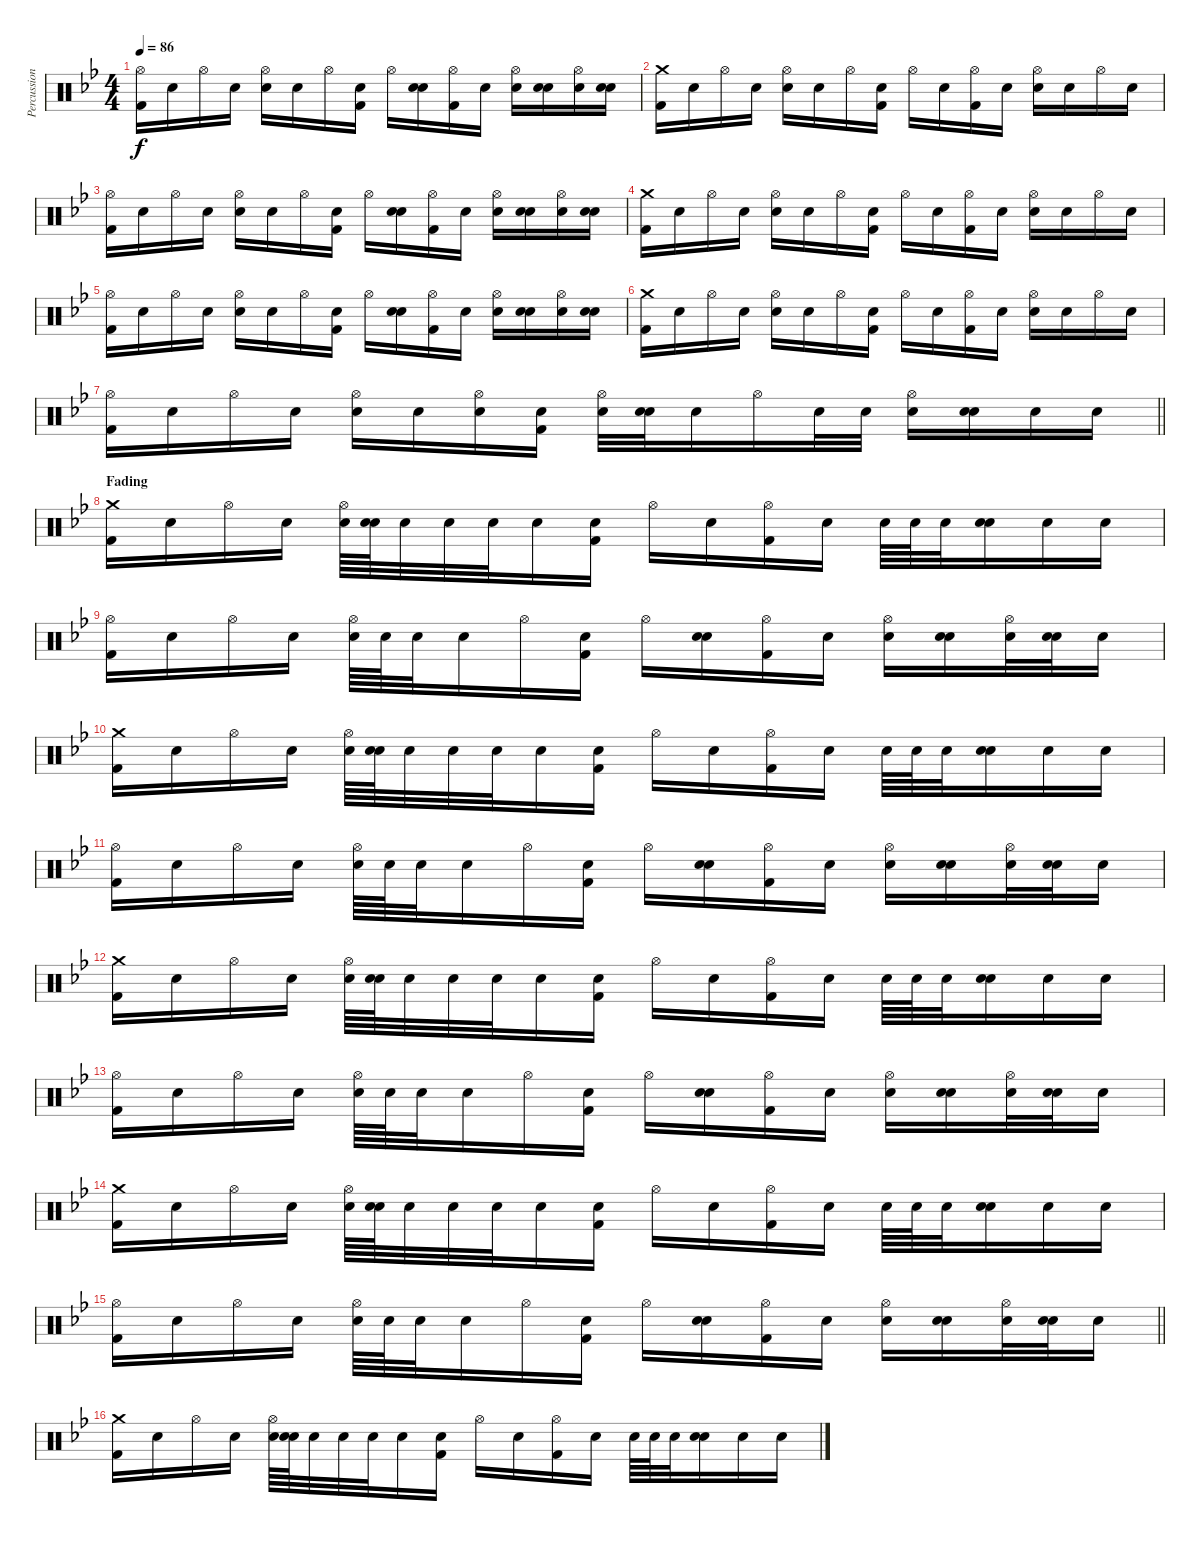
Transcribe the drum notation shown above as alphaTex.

\track ("Percussion" "Percussion") {instrument percussion}
\staff {score}
\articulation defaults
\ts (4 4)
\tempo 86
\clef neutral
\ks gminor
("Hi-Hat (open)" "Kick (hit) 2").16{dy f} "Snare (hit)".16 "Hi-Hat (open)".16 "Snare (hit)".16 ("Hi-Hat (open)" "Electric Snare (hit)").16 "Snare (hit)".16 "Hi-Hat (open)".16 ("Snare (hit)" "Kick (hit) 2").16 "Hi-Hat (open)".16 ("Snare (hit)" "Electric Snare (hit)").16 ("Hi-Hat (open)" "Kick (hit) 2").16 "Snare (hit)".16 ("Hi-Hat (open)" "Electric Snare (hit)").16 ("Snare (hit)" "Electric Snare (hit)").16 ("Hi-Hat (open)" "Electric Snare (hit)").16 ("Snare (hit)" "Electric Snare (hit)").16 |
("Crash medium (hit)" "Kick (hit) 2").16 "Snare (hit)".16 "Hi-Hat (open)".16 "Snare (hit)".16 ("Hi-Hat (open)" "Electric Snare (hit)").16 "Snare (hit)".16 "Hi-Hat (open)".16 ("Snare (hit)" "Kick (hit) 2").16 "Hi-Hat (open)".16 "Snare (hit)".16 ("Hi-Hat (open)" "Kick (hit) 2").16 "Snare (hit)".16 ("Hi-Hat (open)" "Electric Snare (hit)").16 "Snare (hit)".16 "Hi-Hat (open)".16 "Snare (hit)".16 |
("Hi-Hat (open)" "Kick (hit) 2").16 "Snare (hit)".16 "Hi-Hat (open)".16 "Snare (hit)".16 ("Hi-Hat (open)" "Electric Snare (hit)").16 "Snare (hit)".16 "Hi-Hat (open)".16 ("Snare (hit)" "Kick (hit) 2").16 "Hi-Hat (open)".16 ("Snare (hit)" "Electric Snare (hit)").16 ("Hi-Hat (open)" "Kick (hit) 2").16 "Snare (hit)".16 ("Hi-Hat (open)" "Electric Snare (hit)").16 ("Snare (hit)" "Electric Snare (hit)").16 ("Hi-Hat (open)" "Electric Snare (hit)").16 ("Snare (hit)" "Electric Snare (hit)").16 |
("Crash medium (hit)" "Kick (hit) 2").16 "Snare (hit)".16 "Hi-Hat (open)".16 "Snare (hit)".16 ("Hi-Hat (open)" "Electric Snare (hit)").16 "Snare (hit)".16 "Hi-Hat (open)".16 ("Snare (hit)" "Kick (hit) 2").16 "Hi-Hat (open)".16 "Snare (hit)".16 ("Hi-Hat (open)" "Kick (hit) 2").16 "Snare (hit)".16 ("Hi-Hat (open)" "Electric Snare (hit)").16 "Snare (hit)".16 "Hi-Hat (open)".16 "Snare (hit)".16 |
("Hi-Hat (open)" "Kick (hit) 2").16 "Snare (hit)".16 "Hi-Hat (open)".16 "Snare (hit)".16 ("Hi-Hat (open)" "Electric Snare (hit)").16 "Snare (hit)".16 "Hi-Hat (open)".16 ("Snare (hit)" "Kick (hit) 2").16 "Hi-Hat (open)".16 ("Snare (hit)" "Electric Snare (hit)").16 ("Hi-Hat (open)" "Kick (hit) 2").16 "Snare (hit)".16 ("Hi-Hat (open)" "Electric Snare (hit)").16 ("Snare (hit)" "Electric Snare (hit)").16 ("Hi-Hat (open)" "Electric Snare (hit)").16 ("Snare (hit)" "Electric Snare (hit)").16 |
("Crash medium (hit)" "Kick (hit) 2").16 "Snare (hit)".16 "Hi-Hat (open)".16 "Snare (hit)".16 ("Hi-Hat (open)" "Electric Snare (hit)").16 "Snare (hit)".16 "Hi-Hat (open)".16 ("Snare (hit)" "Kick (hit) 2").16 "Hi-Hat (open)".16 "Snare (hit)".16 ("Hi-Hat (open)" "Kick (hit) 2").16 "Snare (hit)".16 ("Hi-Hat (open)" "Electric Snare (hit)").16 "Snare (hit)".16 "Hi-Hat (open)".16 "Snare (hit)".16 |
\barLineRight lightlight
("Hi-Hat (open)" "Kick (hit) 2").16 "Snare (hit)".16 "Hi-Hat (open)".16 "Snare (hit)".16 ("Hi-Hat (open)" "Electric Snare (hit)").16 "Snare (hit)".16 ("Hi-Hat (open)" "Electric Snare (hit)").16 ("Snare (hit)" "Kick (hit) 2").16 ("Hi-Hat (open)" "Electric Snare (hit)").32 ("Snare (hit)" "Electric Snare (hit)").32 "Electric Snare (hit)".16 "Hi-Hat (open)".16 "Electric Snare (hit)".32 "Electric Snare (hit)".32 ("Hi-Hat (open)" "Electric Snare (hit)").16 ("Snare (hit)" "Electric Snare (hit)").16 "Electric Snare (hit)".16 "Electric Snare (hit)".16 |
\section ("" "Fading")
("Crash medium (hit)" "Kick (hit) 2").16{volume 9} "Snare (hit)".16 "Hi-Hat (open)".16 "Snare (hit)".16 ("Hi-Hat (open)" "Electric Snare (hit)").64 ("Snare (hit)" "Electric Snare (hit)").64 "Electric Snare (hit)".32 "Electric Snare (hit)".32 "Electric Snare (hit)".32 "Electric Snare (hit)".16 ("Snare (hit)" "Kick (hit) 2").16 "Hi-Hat (open)".16 "Snare (hit)".16 ("Hi-Hat (open)" "Kick (hit) 2").16 "Snare (hit)".16 "Electric Snare (hit)".64 "Electric Snare (hit)".64 "Electric Snare (hit)".32 ("Snare (hit)" "Electric Snare (hit)").16 "Electric Snare (hit)".16 "Electric Snare (hit)".16 |
("Hi-Hat (open)" "Kick (hit) 2").16 "Snare (hit)".16 "Hi-Hat (open)".16 "Snare (hit)".16 ("Hi-Hat (open)" "Electric Snare (hit)").64 "Electric Snare (hit)".64 "Electric Snare (hit)".32 "Snare (hit)".16 "Hi-Hat (open)".16 ("Snare (hit)" "Kick (hit) 2").16 "Hi-Hat (open)".16 ("Snare (hit)" "Electric Snare (hit)").16 ("Hi-Hat (open)" "Kick (hit) 2").16 "Snare (hit)".16 ("Hi-Hat (open)" "Electric Snare (hit)").16 ("Snare (hit)" "Electric Snare (hit)").16 ("Hi-Hat (open)" "Electric Snare (hit)").32 ("Snare (hit)" "Electric Snare (hit)").32 "Electric Snare (hit)".16 |
("Crash medium (hit)" "Kick (hit) 2").16 "Snare (hit)".16 "Hi-Hat (open)".16 "Snare (hit)".16 ("Hi-Hat (open)" "Electric Snare (hit)").64 ("Snare (hit)" "Electric Snare (hit)").64 "Electric Snare (hit)".32 "Electric Snare (hit)".32 "Electric Snare (hit)".32 "Electric Snare (hit)".16 ("Snare (hit)" "Kick (hit) 2").16 "Hi-Hat (open)".16 "Snare (hit)".16 ("Hi-Hat (open)" "Kick (hit) 2").16 "Snare (hit)".16 "Electric Snare (hit)".64 "Electric Snare (hit)".64 "Electric Snare (hit)".32 ("Snare (hit)" "Electric Snare (hit)").16 "Electric Snare (hit)".16 "Electric Snare (hit)".16 |
("Hi-Hat (open)" "Kick (hit) 2").16 "Snare (hit)".16 "Hi-Hat (open)".16 "Snare (hit)".16 ("Hi-Hat (open)" "Electric Snare (hit)").64 "Electric Snare (hit)".64 "Electric Snare (hit)".32 "Snare (hit)".16 "Hi-Hat (open)".16 ("Snare (hit)" "Kick (hit) 2").16 "Hi-Hat (open)".16 ("Snare (hit)" "Electric Snare (hit)").16 ("Hi-Hat (open)" "Kick (hit) 2").16 "Snare (hit)".16 ("Hi-Hat (open)" "Electric Snare (hit)").16 ("Snare (hit)" "Electric Snare (hit)").16 ("Hi-Hat (open)" "Electric Snare (hit)").32 ("Snare (hit)" "Electric Snare (hit)").32 "Electric Snare (hit)".16 |
("Crash medium (hit)" "Kick (hit) 2").16 "Snare (hit)".16 "Hi-Hat (open)".16 "Snare (hit)".16 ("Hi-Hat (open)" "Electric Snare (hit)").64 ("Snare (hit)" "Electric Snare (hit)").64 "Electric Snare (hit)".32 "Electric Snare (hit)".32 "Electric Snare (hit)".32 "Electric Snare (hit)".16 ("Snare (hit)" "Kick (hit) 2").16 "Hi-Hat (open)".16 "Snare (hit)".16 ("Hi-Hat (open)" "Kick (hit) 2").16 "Snare (hit)".16 "Electric Snare (hit)".64 "Electric Snare (hit)".64 "Electric Snare (hit)".32 ("Snare (hit)" "Electric Snare (hit)").16 "Electric Snare (hit)".16 "Electric Snare (hit)".16 |
("Hi-Hat (open)" "Kick (hit) 2").16{volume 6} "Snare (hit)".16 "Hi-Hat (open)".16 "Snare (hit)".16 ("Hi-Hat (open)" "Electric Snare (hit)").64 "Electric Snare (hit)".64 "Electric Snare (hit)".32 "Snare (hit)".16 "Hi-Hat (open)".16 ("Snare (hit)" "Kick (hit) 2").16 "Hi-Hat (open)".16 ("Snare (hit)" "Electric Snare (hit)").16 ("Hi-Hat (open)" "Kick (hit) 2").16 "Snare (hit)".16 ("Hi-Hat (open)" "Electric Snare (hit)").16 ("Snare (hit)" "Electric Snare (hit)").16 ("Hi-Hat (open)" "Electric Snare (hit)").32 ("Snare (hit)" "Electric Snare (hit)").32 "Electric Snare (hit)".16 |
("Crash medium (hit)" "Kick (hit) 2").16 "Snare (hit)".16 "Hi-Hat (open)".16 "Snare (hit)".16 ("Hi-Hat (open)" "Electric Snare (hit)").64 ("Snare (hit)" "Electric Snare (hit)").64 "Electric Snare (hit)".32 "Electric Snare (hit)".32 "Electric Snare (hit)".32 "Electric Snare (hit)".16 ("Snare (hit)" "Kick (hit) 2").16 "Hi-Hat (open)".16 "Snare (hit)".16 ("Hi-Hat (open)" "Kick (hit) 2").16 "Snare (hit)".16 "Electric Snare (hit)".64 "Electric Snare (hit)".64 "Electric Snare (hit)".32 ("Snare (hit)" "Electric Snare (hit)").16 "Electric Snare (hit)".16 "Electric Snare (hit)".16 |
\barLineRight lightlight
("Hi-Hat (open)" "Kick (hit) 2").16 "Snare (hit)".16 "Hi-Hat (open)".16 "Snare (hit)".16 ("Hi-Hat (open)" "Electric Snare (hit)").64 "Electric Snare (hit)".64 "Electric Snare (hit)".32 "Snare (hit)".16 "Hi-Hat (open)".16 ("Snare (hit)" "Kick (hit) 2").16 "Hi-Hat (open)".16 ("Snare (hit)" "Electric Snare (hit)").16 ("Hi-Hat (open)" "Kick (hit) 2").16 "Snare (hit)".16 ("Hi-Hat (open)" "Electric Snare (hit)").16 ("Snare (hit)" "Electric Snare (hit)").16 ("Hi-Hat (open)" "Electric Snare (hit)").32 ("Snare (hit)" "Electric Snare (hit)").32 "Electric Snare (hit)".16 |
\section ("" "")
("Crash medium (hit)" "Kick (hit) 2").16 "Snare (hit)".16 "Hi-Hat (open)".16 "Snare (hit)".16 ("Hi-Hat (open)" "Electric Snare (hit)").64 ("Snare (hit)" "Electric Snare (hit)").64 "Electric Snare (hit)".32 "Electric Snare (hit)".32 "Electric Snare (hit)".32 "Electric Snare (hit)".16 ("Snare (hit)" "Kick (hit) 2").16 "Hi-Hat (open)".16 "Snare (hit)".16 ("Hi-Hat (open)" "Kick (hit) 2").16 "Snare (hit)".16 "Electric Snare (hit)".64 "Electric Snare (hit)".64 "Electric Snare (hit)".32 ("Snare (hit)" "Electric Snare (hit)").16 "Electric Snare (hit)".16 "Electric Snare (hit)".16
